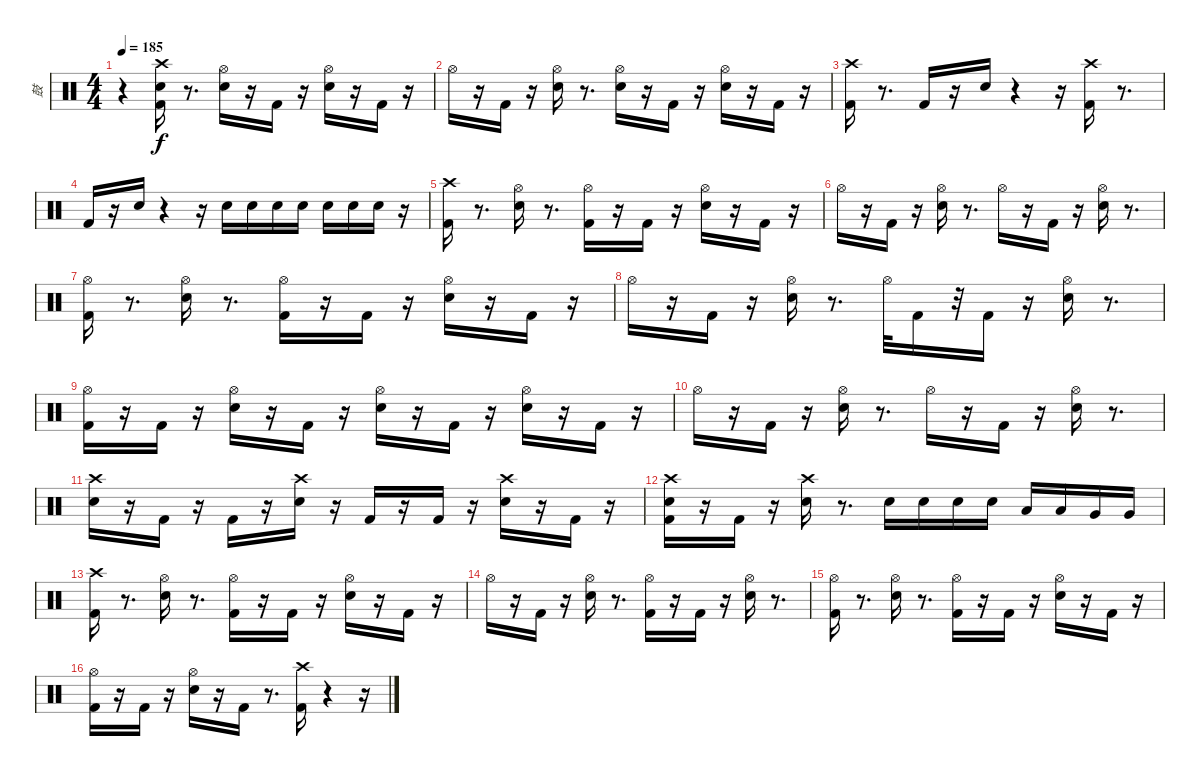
\track ("鼓" "鼓") {instrument percussion}
\staff {score}
\articulation defaults
\ts (4 4)
\tempo 185
\clef neutral
\ks c
r.4{dy f} ("Snare (hit) 2" "Kick (hit) 2" "Crash high (hit)").16 r.8{d} ("Snare (hit) 2" "Hi-Hat (open)").16 r.16 "Kick (hit) 2".16 r.16 ("Snare (hit) 2" "Hi-Hat (open)").16 r.16 "Kick (hit) 2".16 r.16 |
"Hi-Hat (open)".16 r.16 "Kick (hit) 2".16 r.16 ("Snare (hit) 2" "Hi-Hat (open)").16 r.8{d} ("Hi-Hat (open)" "Snare (hit) 2").16 r.16 "Kick (hit) 2".16 r.16 ("Hi-Hat (open)" "Snare (hit) 2").16 r.16 "Kick (hit) 2".16 r.16 |
("Kick (hit) 2" "Crash high (hit)").16 r.8{d} "Kick (hit) 2".16 r.16 "Snare (hit) 2".16 r.4 r.16 ("Kick (hit) 2" "Crash high (hit)").16 r.8{d} |
"Kick (hit) 2".16 r.16 "Snare (hit) 2".16 r.4 r.16 "Snare (hit) 2".16 "Snare (hit) 2".16 "Snare (hit) 2".16 "Snare (hit) 2".16 "Snare (hit) 2".16 "Snare (hit) 2".16 "Snare (hit) 2".16 r.16 |
("Crash high (hit)" "Kick (hit) 2").16 r.8{d} ("Hi-Hat (open)" "Snare (hit) 2").16 r.8{d} ("Hi-Hat (open)" "Kick (hit) 2").16 r.16 "Kick (hit) 2".16 r.16 ("Hi-Hat (open)" "Snare (hit) 2").16 r.16 "Kick (hit) 2".16 r.16 |
"Hi-Hat (open)".16 r.16 "Kick (hit) 2".16 r.16 ("Hi-Hat (open)" "Snare (hit) 2").16 r.8{d} "Hi-Hat (open)".16 r.16 "Kick (hit) 2".16 r.16 ("Hi-Hat (open)" "Snare (hit) 2").16 r.8{d} |
("Hi-Hat (open)" "Kick (hit) 2").16 r.8{d} ("Hi-Hat (open)" "Snare (hit) 2").16 r.8{d} ("Hi-Hat (open)" "Kick (hit) 2").16 r.16 "Kick (hit) 2".16 r.16 ("Hi-Hat (open)" "Snare (hit) 2").16 r.16 "Kick (hit) 2".16 r.16 |
"Hi-Hat (open)".16 r.16 "Kick (hit) 2".16 r.16 ("Hi-Hat (open)" "Snare (hit) 2").16 r.8{d} "Hi-Hat (open)".32 "Kick (hit) 2".16 r.32 "Kick (hit) 2".16 r.16 ("Hi-Hat (open)" "Snare (hit) 2").16 r.8{d} |
("Hi-Hat (open)" "Kick (hit) 2").16 r.16 "Kick (hit) 2".16 r.16 ("Hi-Hat (open)" "Snare (hit) 2").16 r.16 "Kick (hit) 2".16 r.16 ("Hi-Hat (open)" "Snare (hit) 2").16 r.16 "Kick (hit) 2".16 r.16 ("Hi-Hat (open)" "Snare (hit) 2").16 r.16 "Kick (hit) 2".16 r.16 |
"Hi-Hat (open)".16 r.16 "Kick (hit) 2".16 r.16 ("Hi-Hat (open)" "Snare (hit) 2").16 r.8{d} "Hi-Hat (open)".16 r.16 "Kick (hit) 2".16 r.16 ("Hi-Hat (open)" "Snare (hit) 2").16 r.8{d} |
("Crash high (hit)" "Snare (hit) 2").16 r.16 "Kick (hit) 2".16 r.16 "Kick (hit) 2".16 r.16 ("Crash high (hit)" "Snare (hit) 2").16 r.16 "Kick (hit) 2".16 r.16 "Kick (hit) 2".16 r.16 ("Crash high (hit)" "Snare (hit) 2").16 r.16 "Kick (hit) 2".16 r.16 |
("Kick (hit) 2" "Crash high (hit)" "Snare (hit) 2").16 r.16 "Kick (hit) 2".16 r.16 ("Snare (hit) 2" "Crash high (hit)").16 r.8{d} "Snare (hit) 2".16 "Snare (hit) 2".16 "Snare (hit) 2".16 "Snare (hit) 2".16 "Low Tom (hit)".16 "Low Tom (hit)".16 "Very Low Tom (hit)".16 "Very Low Tom (hit)".16 |
("Crash high (hit)" "Kick (hit) 2").16 r.8{d} ("Hi-Hat (open)" "Snare (hit) 2").16 r.8{d} ("Hi-Hat (open)" "Kick (hit) 2").16 r.16 "Kick (hit) 2".16 r.16 ("Hi-Hat (open)" "Snare (hit) 2").16 r.16 "Kick (hit) 2".16 r.16 |
"Hi-Hat (open)".16 r.16 "Kick (hit) 2".16 r.16 ("Hi-Hat (open)" "Snare (hit) 2").16 r.8{d} ("Kick (hit) 2" "Hi-Hat (open)").16 r.16 "Kick (hit) 2".16 r.16 ("Hi-Hat (open)" "Snare (hit) 2").16 r.8{d} |
("Hi-Hat (open)" "Kick (hit) 2").16 r.8{d} ("Hi-Hat (open)" "Snare (hit) 2").16 r.8{d} ("Hi-Hat (open)" "Kick (hit) 2").16 r.16 "Kick (hit) 2".16 r.16 ("Hi-Hat (open)" "Snare (hit) 2").16 r.16 "Kick (hit) 2".16 r.16 |
("Kick (hit) 2" "Hi-Hat (open)").16 r.16 "Kick (hit) 2".16 r.16 ("Hi-Hat (open)" "Snare (hit) 2").16 r.16 "Kick (hit) 2".16 r.8{d} ("Crash high (hit)" "Kick (hit) 2").16 r.4 r.16
